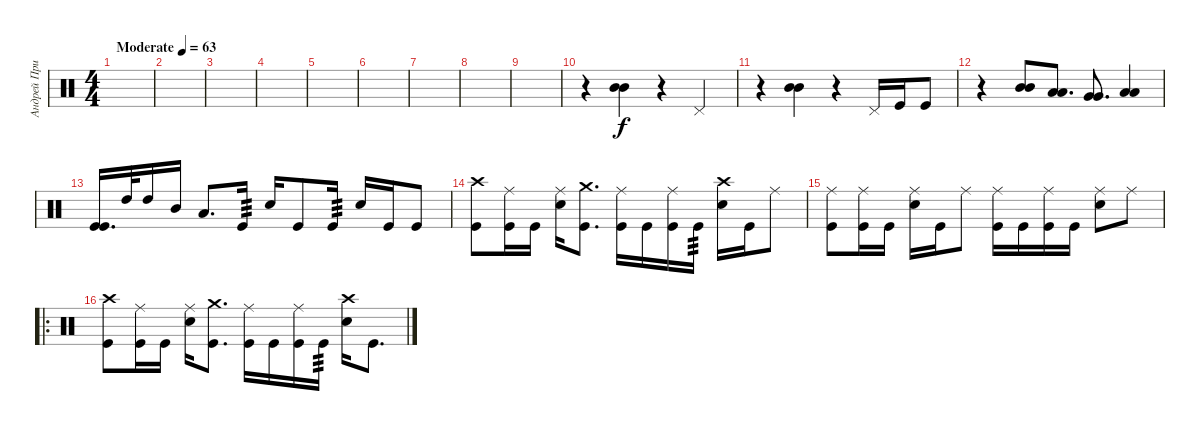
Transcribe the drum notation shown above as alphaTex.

\track ("Андрей Приставка" "Андрей При") {instrument percussion}
\staff {score}
\articulation defaults
\ts (4 4)
\tempo (63 "Moderate")
\clef neutral
\ks c
|
|
|
|
|
|
|
|
|
r.4 ("Mid Tom (hit)" "Mid Tom (hit)").4 r.4 "Pedal Hi-Hat (hit)".4 |
r.4 ("Mid Tom (hit)" "Mid Tom (hit)").4 r.4 "Pedal Hi-Hat (hit)".16 "Kick (hit)".16 "Kick (hit)".8 |
r.4 ("Mid Tom (hit)" "Mid Tom (hit)").8 ("Low Tom (hit)" "Low Tom (hit)").8{d} ("Very Low Tom (hit)" "Very Low Tom (hit)").8{d} ("Low Tom (hit)" "Low Tom (hit)").4 |
("Kick (hit)" "Kick (hit)").16{d} "High Tom (hit)".32 "High Tom (hit)".16 "Mid Tom (hit)".16 "Low Tom (hit)".8{d} "Kick (hit)".16{tp 3} "Snare (hit) 2".16 "Kick (hit)".8 "Kick (hit)".16{tp 3} "Snare (hit) 2".16 "Kick (hit)".16 "Kick (hit)".8 |
("Kick (hit)" "Crash high (hit)").8 ("Kick (hit)" "Ride (middle)").16 "Kick (hit)".16 ("Snare (hit) 2" "Ride (middle)").16 ("Kick (hit)" "Crash medium (hit)").8{d} ("Kick (hit)" "Ride (middle)").16 "Kick (hit)".16 ("Kick (hit)" "Ride (middle)").16 "Kick (hit)".16{tp 3} ("Snare (hit) 2" "Crash high (hit)").16 "Kick (hit)".16 "Ride (middle)".8 |
("Kick (hit)" "Ride (middle)").8 ("Kick (hit)" "Ride (middle)").16 "Kick (hit)".16 ("Ride (middle)" "Snare (hit) 2").16 "Kick (hit)".16 "Ride (middle)".8 ("Kick (hit)" "Ride (middle)").16 "Kick (hit)".16 ("Kick (hit)" "Ride (middle)").16 "Kick (hit)".16 ("Snare (hit) 2" "Ride (middle)").8 "Ride (middle)".8 |
\ro
("Kick (hit)" "Crash high (hit)").8 ("Kick (hit)" "Ride (middle)").16 "Kick (hit)".16 ("Snare (hit) 2" "Ride (middle)").16 ("Kick (hit)" "Crash medium (hit)").8{d} ("Kick (hit)" "Ride (middle)").16 "Kick (hit)".16 ("Kick (hit)" "Ride (middle)").16 "Kick (hit)".16{tp 3} ("Snare (hit) 2" "Crash high (hit)").16 "Kick (hit)".8{d}
